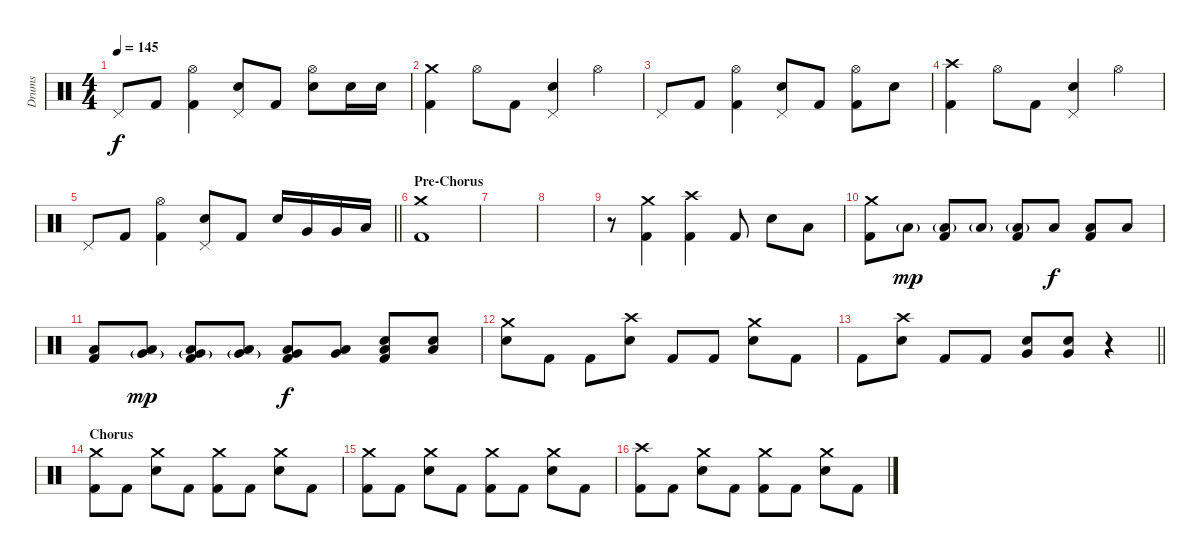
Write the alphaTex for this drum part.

\track ("Drums" "Drums") {instrument percussion}
\staff {score}
\articulation defaults
\ts (4 4)
\tempo 145
\clef neutral
\ks c "Pedal Hi-Hat (hit)".8{dy f} "Kick (hit) 2".8
("Hi-Hat (open)" "Kick (hit) 2").4 ("Pedal Hi-Hat (hit)" "Electric Snare (hit)").8 "Kick (hit) 2".8 ("Hi-Hat (open)" "Electric Snare (hit)").8 "Electric Snare (hit)".16 "Electric Snare (hit)".16 |
("Crash medium (hit)" "Kick (hit) 2").4 "Hi-Hat (open)".8 "Kick (hit) 2".8 ("Pedal Hi-Hat (hit)" "Electric Snare (hit)").4 "Hi-Hat (open)".4 |
"Pedal Hi-Hat (hit)".8 "Kick (hit) 2".8 ("Hi-Hat (open)" "Kick (hit) 2").4 ("Pedal Hi-Hat (hit)" "Electric Snare (hit)").8 "Kick (hit) 2".8 ("Hi-Hat (open)" "Kick (hit) 2").8 "Electric Snare (hit)".8 |
("Crash high (hit)" "Kick (hit) 2").4 "Hi-Hat (open)".8 "Kick (hit) 2".8 ("Pedal Hi-Hat (hit)" "Electric Snare (hit)").4 "Hi-Hat (open)".4 |
\barLineRight lightlight "Pedal Hi-Hat (hit)".8 "Kick (hit) 2".8
("Hi-Hat (open)" "Kick (hit) 2").4 ("Pedal Hi-Hat (hit)" "Electric Snare (hit)").8 "Kick (hit) 2".8 "Electric Snare (hit)".16 "Very Low Tom (hit)".16 "Very Low Tom (hit)".16 "Low Floor Tom (hit)".16 |
\section ("" "Pre-Chorus")
("Crash medium (hit)" "Kick (hit) 2").1 |
|
|
r.8 ("Crash medium (hit)" "Kick (hit) 2").4 ("Crash high (hit)" "Kick (hit) 2").4 "Kick (hit) 2".8 "Electric Snare (hit)".8 "Low Tom (hit)".8 |
("Crash medium (hit)" "Kick (hit) 2").8 "Low Floor Tom (hit)"{g}.8{dy mp} ("Low Floor Tom (hit)"{g} "Kick (hit) 2").8 "Low Floor Tom (hit)"{g}.8 ("Low Floor Tom (hit)"{g} "Kick (hit) 2").8 "Low Floor Tom (hit)".8{dy f} ("Low Floor Tom (hit)" "Kick (hit) 2").8 "Low Floor Tom (hit)".8 |
("Low Floor Tom (hit)" "Kick (hit) 2").8 ("Very Low Tom (hit)"{g} "Low Floor Tom (hit)").8{dy mp} ("Very Low Tom (hit)"{g} "Low Floor Tom (hit)" "Kick (hit) 2").8 ("Very Low Tom (hit)"{g} "Low Floor Tom (hit)").8 ("Very Low Tom (hit)" "Low Floor Tom (hit)" "Kick (hit) 2").8{dy f} ("Very Low Tom (hit)" "Low Floor Tom (hit)").8 ("Electric Snare (hit)" "Low Floor Tom (hit)" "Kick (hit) 2").8 ("Electric Snare (hit)" "Low Floor Tom (hit)").8 |
("Crash medium (hit)" "Electric Snare (hit)").8 "Kick (hit) 2".8 "Kick (hit) 2".8 ("Crash high (hit)" "Electric Snare (hit)").8 "Kick (hit) 2".8 "Kick (hit) 2".8 ("Crash medium (hit)" "Electric Snare (hit)").8 "Kick (hit) 2".8 |
\barLineRight lightlight "Kick (hit) 2".8
("Crash high (hit)" "Electric Snare (hit)").8 "Kick (hit) 2".8 "Kick (hit) 2".8 ("Very Low Tom (hit)" "Electric Snare (hit)").8 ("Very Low Tom (hit)" "Electric Snare (hit)").8 r.4 |
\section ("" "Chorus")
("Crash medium (hit)" "Kick (hit) 2").8 "Kick (hit) 2".8 ("Crash medium (hit)" "Electric Snare (hit)").8 "Kick (hit) 2".8 ("Crash medium (hit)" "Kick (hit) 2").8 "Kick (hit) 2".8 ("Crash medium (hit)" "Electric Snare (hit)").8 "Kick (hit) 2".8 |
("Crash medium (hit)" "Kick (hit) 2").8 "Kick (hit) 2".8 ("Crash medium (hit)" "Electric Snare (hit)").8 "Kick (hit) 2".8 ("Crash medium (hit)" "Kick (hit) 2").8 "Kick (hit) 2".8 ("Crash medium (hit)" "Electric Snare (hit)").8 "Kick (hit) 2".8 |
("Crash high (hit)" "Kick (hit) 2").8 "Kick (hit) 2".8 ("Crash medium (hit)" "Electric Snare (hit)").8 "Kick (hit) 2".8 ("Crash medium (hit)" "Kick (hit) 2").8 "Kick (hit) 2".8 ("Crash medium (hit)" "Electric Snare (hit)").8 "Kick (hit) 2".8
